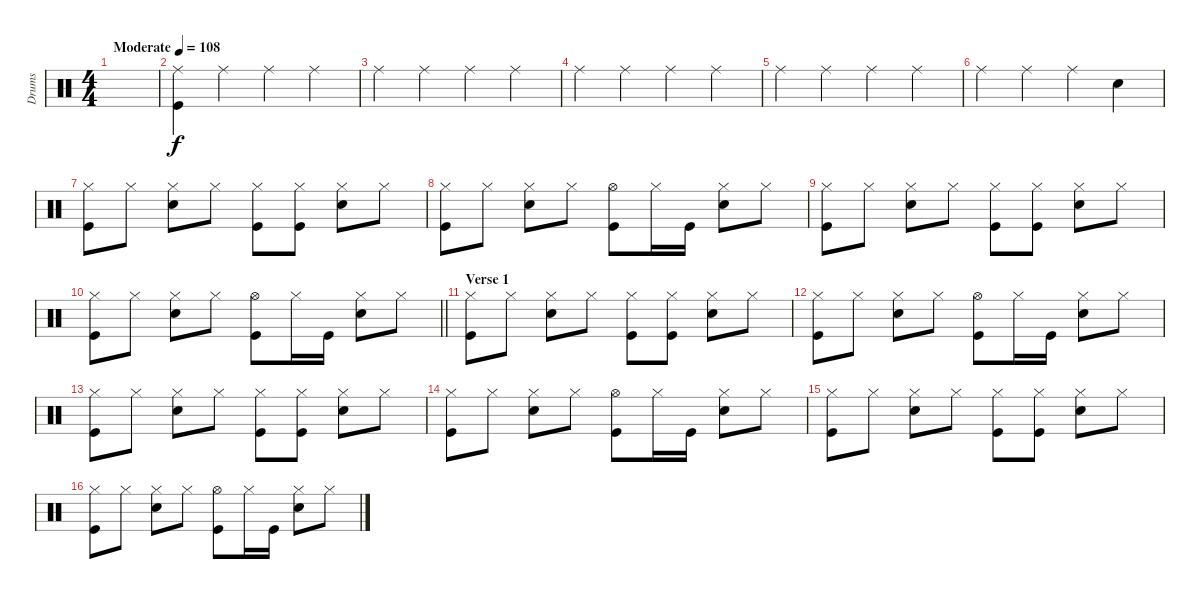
\track ("Drums" "Drums") {instrument percussion}
\staff {score}
\articulation defaults
\ts (4 4)
\tempo (108 "Moderate")
\clef neutral
\ks c
|
("Ride (middle)" "Kick (hit)").4 "Ride (middle)".4 "Ride (middle)".4 "Ride (middle)".4 |
"Ride (middle)".4 "Ride (middle)".4 "Ride (middle)".4 "Ride (middle)".4 |
"Ride (middle)".4 "Ride (middle)".4 "Ride (middle)".4 "Ride (middle)".4 |
"Ride (middle)".4 "Ride (middle)".4 "Ride (middle)".4 "Ride (middle)".4 |
"Ride (middle)".4 "Ride (middle)".4 "Ride (middle)".4 "Snare (hit) 2".4 |
("Hi-Hat (closed)" "Kick (hit)").8 "Hi-Hat (closed)".8 ("Hi-Hat (closed)" "Snare (hit) 2").8 "Hi-Hat (closed)".8 ("Hi-Hat (closed)" "Kick (hit)").8 ("Hi-Hat (closed)" "Kick (hit)").8 ("Hi-Hat (closed)" "Snare (hit) 2").8 "Hi-Hat (closed)".8 |
("Hi-Hat (closed)" "Kick (hit)").8 "Hi-Hat (closed)".8 ("Hi-Hat (closed)" "Snare (hit) 2").8 "Hi-Hat (closed)".8 ("Hi-Hat (open)" "Kick (hit)").8 "Hi-Hat (closed)".16 "Kick (hit)".16 ("Hi-Hat (closed)" "Snare (hit) 2").8 "Hi-Hat (closed)".8 |
("Hi-Hat (closed)" "Kick (hit)").8 "Hi-Hat (closed)".8 ("Hi-Hat (closed)" "Snare (hit) 2").8 "Hi-Hat (closed)".8 ("Hi-Hat (closed)" "Kick (hit)").8 ("Hi-Hat (closed)" "Kick (hit)").8 ("Hi-Hat (closed)" "Snare (hit) 2").8 "Hi-Hat (closed)".8 |
\barLineRight lightlight
("Hi-Hat (closed)" "Kick (hit)").8 "Hi-Hat (closed)".8 ("Hi-Hat (closed)" "Snare (hit) 2").8 "Hi-Hat (closed)".8 ("Hi-Hat (open)" "Kick (hit)").8 "Hi-Hat (closed)".16 "Kick (hit)".16 ("Hi-Hat (closed)" "Snare (hit) 2").8 "Hi-Hat (closed)".8 |
\section ("" "Verse 1")
("Hi-Hat (closed)" "Kick (hit)").8 "Hi-Hat (closed)".8 ("Hi-Hat (closed)" "Snare (hit) 2").8 "Hi-Hat (closed)".8 ("Hi-Hat (closed)" "Kick (hit)").8 ("Hi-Hat (closed)" "Kick (hit)").8 ("Hi-Hat (closed)" "Snare (hit) 2").8 "Hi-Hat (closed)".8 |
("Hi-Hat (closed)" "Kick (hit)").8 "Hi-Hat (closed)".8 ("Hi-Hat (closed)" "Snare (hit) 2").8 "Hi-Hat (closed)".8 ("Hi-Hat (open)" "Kick (hit)").8 "Hi-Hat (closed)".16 "Kick (hit)".16 ("Hi-Hat (closed)" "Snare (hit) 2").8 "Hi-Hat (closed)".8 |
("Hi-Hat (closed)" "Kick (hit)").8 "Hi-Hat (closed)".8 ("Hi-Hat (closed)" "Snare (hit) 2").8 "Hi-Hat (closed)".8 ("Hi-Hat (closed)" "Kick (hit)").8 ("Hi-Hat (closed)" "Kick (hit)").8 ("Hi-Hat (closed)" "Snare (hit) 2").8 "Hi-Hat (closed)".8 |
("Hi-Hat (closed)" "Kick (hit)").8 "Hi-Hat (closed)".8 ("Hi-Hat (closed)" "Snare (hit) 2").8 "Hi-Hat (closed)".8 ("Hi-Hat (open)" "Kick (hit)").8 "Hi-Hat (closed)".16 "Kick (hit)".16 ("Hi-Hat (closed)" "Snare (hit) 2").8 "Hi-Hat (closed)".8 |
("Hi-Hat (closed)" "Kick (hit)").8 "Hi-Hat (closed)".8 ("Hi-Hat (closed)" "Snare (hit) 2").8 "Hi-Hat (closed)".8 ("Hi-Hat (closed)" "Kick (hit)").8 ("Hi-Hat (closed)" "Kick (hit)").8 ("Hi-Hat (closed)" "Snare (hit) 2").8 "Hi-Hat (closed)".8 |
("Hi-Hat (closed)" "Kick (hit)").8 "Hi-Hat (closed)".8 ("Hi-Hat (closed)" "Snare (hit) 2").8 "Hi-Hat (closed)".8 ("Hi-Hat (open)" "Kick (hit)").8 "Hi-Hat (closed)".16 "Kick (hit)".16 ("Hi-Hat (closed)" "Snare (hit) 2").8 "Hi-Hat (closed)".8
